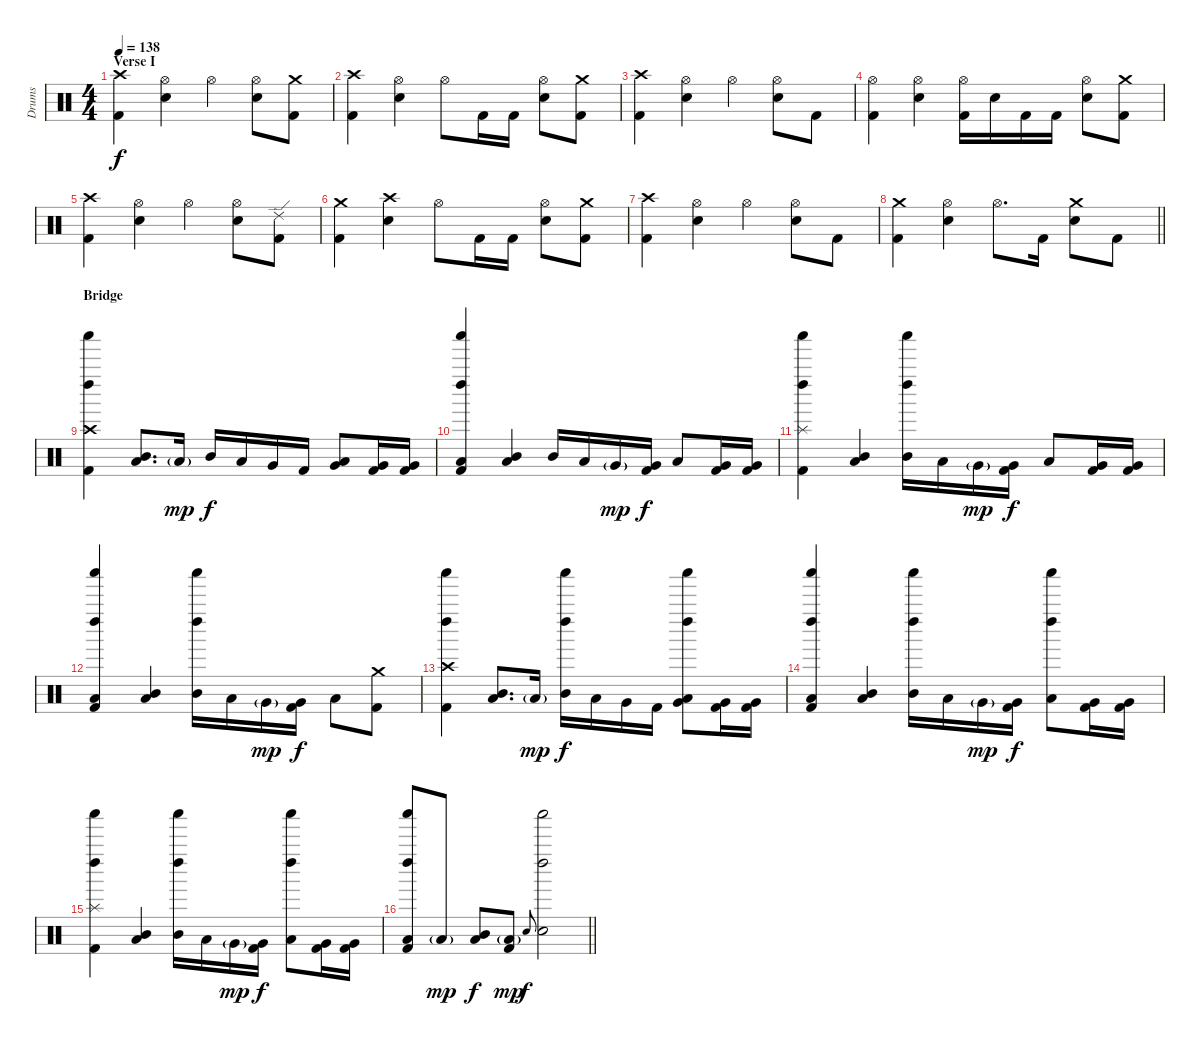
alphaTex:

\track ("Drums" "Drums") {instrument percussion}
\staff {score}
\articulation defaults
\ts (4 4)
\section ("" "Verse I")
\tempo 138
\clef neutral
\ks c
("Crash high (hit)" "Kick (hit) 2").4{dy f} ("Hi-Hat (open)" "Electric Snare (hit)").4 "Hi-Hat (open)".4 ("Hi-Hat (open)" "Electric Snare (hit)").8 ("Crash medium (hit)" "Kick (hit) 2").8 |
("Crash high (hit)" "Kick (hit) 2").4 ("Hi-Hat (open)" "Electric Snare (hit)").4 "Hi-Hat (open)".8 "Kick (hit) 2".16 "Kick (hit) 2".16 ("Hi-Hat (open)" "Electric Snare (hit)").8 ("Crash medium (hit)" "Kick (hit) 2").8 |
("Crash high (hit)" "Kick (hit) 2").4 ("Hi-Hat (open)" "Electric Snare (hit)").4 "Hi-Hat (open)".4 ("Hi-Hat (open)" "Electric Snare (hit)").8 "Kick (hit) 2".8 |
("Hi-Hat (open)" "Kick (hit) 2").4 ("Hi-Hat (open)" "Electric Snare (hit)").4 ("Hi-Hat (open)" "Kick (hit) 2").16 "Electric Snare (hit)".16 "Kick (hit) 2".16 "Kick (hit) 2".16 ("Hi-Hat (open)" "Electric Snare (hit)").8 ("Crash medium (hit)" "Kick (hit) 2").8 |
("Crash high (hit)" "Kick (hit) 2").4 ("Hi-Hat (open)" "Electric Snare (hit)").4 "Hi-Hat (open)".4 ("Hi-Hat (open)" "Electric Snare (hit)").8 ("Ride (edge) 2" "Kick (hit) 2").8 |
("Crash medium (hit)" "Kick (hit) 2").4 ("Crash high (hit)" "Electric Snare (hit)").4 "Hi-Hat (open)".8 "Kick (hit) 2".16 "Kick (hit) 2".16 ("Hi-Hat (open)" "Electric Snare (hit)").8 ("Crash medium (hit)" "Kick (hit) 2").8 |
("Crash high (hit)" "Kick (hit) 2").4 ("Hi-Hat (open)" "Electric Snare (hit)").4 "Hi-Hat (open)".4 ("Hi-Hat (open)" "Electric Snare (hit)").8 "Kick (hit) 2".8 |
\barLineRight lightlight
("Crash medium (hit)" "Kick (hit) 2").4 ("Hi-Hat (open)" "Electric Snare (hit)").4 "Hi-Hat (open)".8{d} "Kick (hit) 2".16 ("Crash medium (hit)" "Electric Snare (hit)").8 "Kick (hit) 2".8 |
\section ("" "Bridge")
("Crash high (hit)" "Left Maraca (hit)" "Shaker (hit)" "Kick (hit) 2").4 ("Mid Tom (hit)" "Low Tom (hit)").8{d} "Low Tom (hit)"{g}.16{dy mp} "Mid Tom (hit)".16{dy f} "Low Tom (hit)".16 "Very Low Tom (hit)".16 "Kick (hit) 2".16 ("Low Tom (hit)" "Very Low Tom (hit)").8 ("Very Low Tom (hit)" "Kick (hit) 2").16 ("Very Low Tom (hit)" "Kick (hit) 2").16 |
("Low Floor Tom (hit)" "Left Maraca (hit)" "Shaker (hit)" "Kick (hit) 2").4 ("Mid Tom (hit)" "Low Tom (hit)").4 "Mid Tom (hit)".16 "Low Tom (hit)".16 "Very Low Tom (hit)"{g}.16{dy mp} ("Very Low Tom (hit)" "Kick (hit) 2").16{dy f} "Low Tom (hit)".8 ("Very Low Tom (hit)" "Kick (hit) 2").16 ("Very Low Tom (hit)" "Kick (hit) 2").16 |
("Splash (hit)" "Left Maraca (hit)" "Shaker (hit)" "Kick (hit) 2").4 ("Mid Tom (hit)" "Low Tom (hit)").4 ("Mid Tom (hit)" "Left Maraca (hit)" "Shaker (hit)").16 "Low Tom (hit)".16 "Very Low Tom (hit)"{g}.16{dy mp} ("Very Low Tom (hit)" "Kick (hit) 2").16{dy f} "Low Tom (hit)".8 ("Very Low Tom (hit)" "Kick (hit) 2").16 ("Very Low Tom (hit)" "Kick (hit) 2").16 |
("Low Floor Tom (hit)" "Left Maraca (hit)" "Shaker (hit)" "Kick (hit) 2").4 ("Mid Tom (hit)" "Low Tom (hit)").4 ("Mid Tom (hit)" "Left Maraca (hit)" "Shaker (hit)").16 "Low Tom (hit)".16 "Very Low Tom (hit)"{g}.16{dy mp} ("Very Low Tom (hit)" "Kick (hit) 2").16{dy f} "Low Tom (hit)".8 ("Crash medium (hit)" "Kick (hit) 2").8 |
("Crash high (hit)" "Left Maraca (hit)" "Shaker (hit)" "Kick (hit) 2").4 ("Mid Tom (hit)" "Low Tom (hit)").8{d} "Low Tom (hit)"{g}.16{dy mp} ("Mid Tom (hit)" "Left Maraca (hit)" "Shaker (hit)").16{dy f} "Low Tom (hit)".16 "Very Low Tom (hit)".16 "Kick (hit) 2".16 ("Low Tom (hit)" "Very Low Tom (hit)" "Left Maraca (hit)" "Shaker (hit)").8 ("Very Low Tom (hit)" "Kick (hit) 2").16 ("Very Low Tom (hit)" "Kick (hit) 2").16 |
("Low Floor Tom (hit)" "Left Maraca (hit)" "Shaker (hit)" "Kick (hit) 2").4 ("Mid Tom (hit)" "Low Tom (hit)").4 ("Mid Tom (hit)" "Left Maraca (hit)" "Shaker (hit)").16 "Low Tom (hit)".16 "Very Low Tom (hit)"{g}.16{dy mp} ("Very Low Tom (hit)" "Kick (hit) 2").16{dy f} ("Low Tom (hit)" "Left Maraca (hit)" "Shaker (hit)").8 ("Very Low Tom (hit)" "Kick (hit) 2").16 ("Very Low Tom (hit)" "Kick (hit) 2").16 |
("Splash (hit)" "Left Maraca (hit)" "Shaker (hit)" "Kick (hit) 2").4 ("Mid Tom (hit)" "Low Tom (hit)").4 ("Mid Tom (hit)" "Left Maraca (hit)" "Shaker (hit)").16 "Low Tom (hit)".16 "Very Low Tom (hit)"{g}.16{dy mp} ("Very Low Tom (hit)" "Kick (hit) 2").16{dy f} ("Low Tom (hit)" "Left Maraca (hit)" "Shaker (hit)").8 ("Very Low Tom (hit)" "Kick (hit) 2").16 ("Very Low Tom (hit)" "Kick (hit) 2").16 |
\barLineRight lightlight
("Low Floor Tom (hit)" "Left Maraca (hit)" "Shaker (hit)" "Kick (hit) 2").8 "Low Floor Tom (hit)"{g}.8{dy mp} ("Mid Tom (hit)" "Low Tom (hit)").8{dy f} ("Low Floor Tom (hit)"{g} "Kick (hit) 2").8{dy mp} "Electric Snare (hit)".8{gr onbeat dy f} ("Electric Snare (hit)" "Left Maraca (hit)" "Shaker (hit)").2
